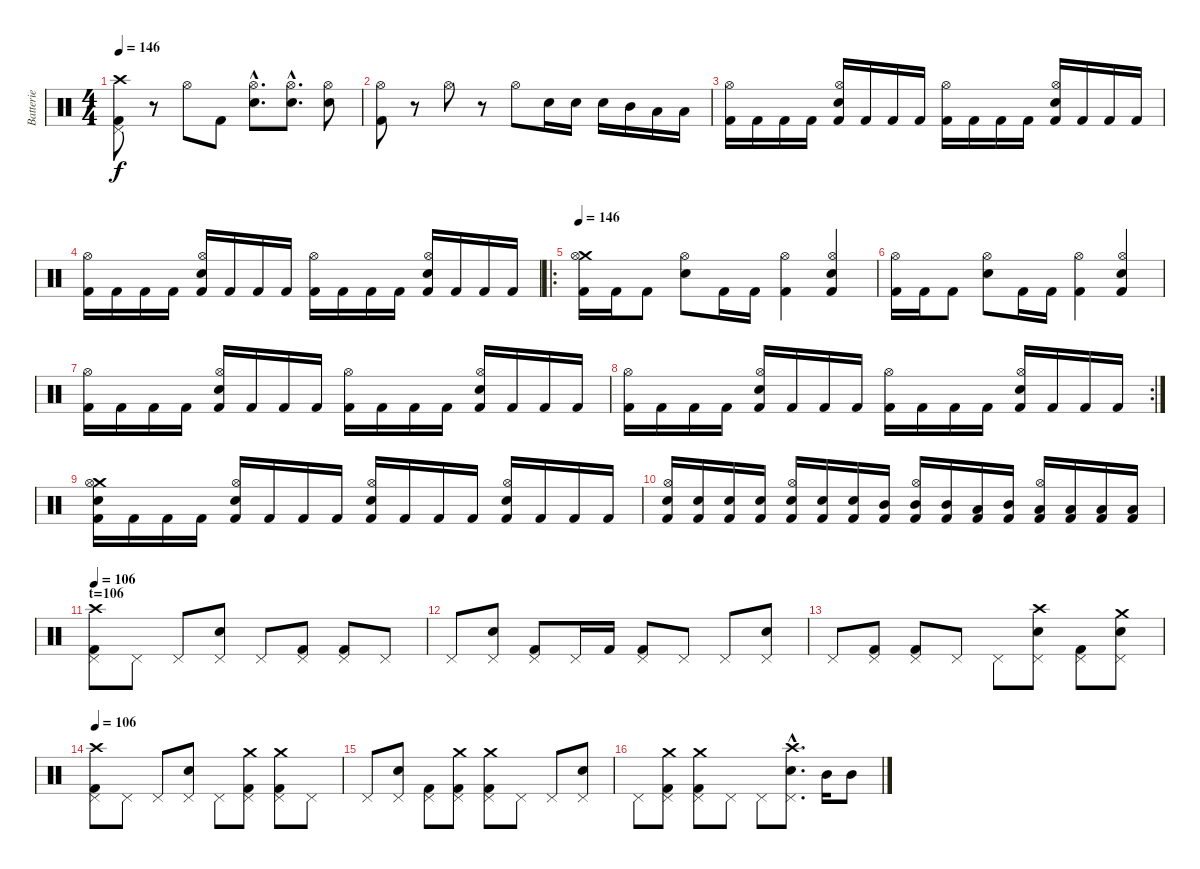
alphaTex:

\track ("Batterie" "Batterie") {instrument percussion}
\staff {score}
\articulation defaults
\ts (4 4)
\tempo 146
\clef neutral
\ks c
("Crash high (hit)" "Pedal Hi-Hat (hit)" "Kick (hit) 2").8{dy f} r.8 "Hi-Hat (open)".8 "Kick (hit) 2".8 ("Hi-Hat (open)"{hac} "Electric Snare (hit)"{hac}).8{d} ("Hi-Hat (open)"{hac} "Electric Snare (hit)"{hac}).8{d} ("Hi-Hat (open)" "Electric Snare (hit)").8 |
("Hi-Hat (open)" "Kick (hit) 2").8 r.8 "Hi-Hat (open)".8 r.8 "Hi-Hat (open)".8 "Electric Snare (hit)".16 "Electric Snare (hit)".16 "Electric Snare (hit)".16 "Mid Tom (hit)".16 "Low Tom (hit)".16 "Low Tom (hit)".16 |
("Hi-Hat (open)" "Kick (hit) 2").16 "Kick (hit) 2".16 "Kick (hit) 2".16 "Kick (hit) 2".16 ("Hi-Hat (open)" "Electric Snare (hit)" "Kick (hit) 2").16 "Kick (hit) 2".16 "Kick (hit) 2".16 "Kick (hit) 2".16 ("Hi-Hat (open)" "Kick (hit) 2").16 "Kick (hit) 2".16 "Kick (hit) 2".16 "Kick (hit) 2".16 ("Hi-Hat (open)" "Electric Snare (hit)" "Kick (hit) 2").16 "Kick (hit) 2".16 "Kick (hit) 2".16 "Kick (hit) 2".16 |
("Hi-Hat (open)" "Kick (hit) 2").16 "Kick (hit) 2".16 "Kick (hit) 2".16 "Kick (hit) 2".16 ("Hi-Hat (open)" "Electric Snare (hit)" "Kick (hit) 2").16 "Kick (hit) 2".16 "Kick (hit) 2".16 "Kick (hit) 2".16 ("Hi-Hat (open)" "Kick (hit) 2").16 "Kick (hit) 2".16 "Kick (hit) 2".16 "Kick (hit) 2".16 ("Hi-Hat (open)" "Electric Snare (hit)" "Kick (hit) 2").16 "Kick (hit) 2".16 "Kick (hit) 2".16 "Kick (hit) 2".16 |
\ro
\tempo 146
("Crash medium (hit)" "Hi-Hat (open)" "Kick (hit) 2").16 "Kick (hit) 2".16 "Kick (hit) 2".8 ("Hi-Hat (open)" "Electric Snare (hit)").8 "Kick (hit) 2".16 "Kick (hit) 2".16 ("Hi-Hat (open)" "Kick (hit) 2").4 ("Kick (hit) 2" "Hi-Hat (open)" "Electric Snare (hit)").4 |
("Hi-Hat (open)" "Kick (hit) 2").16 "Kick (hit) 2".16 "Kick (hit) 2".8 ("Hi-Hat (open)" "Electric Snare (hit)").8 "Kick (hit) 2".16 "Kick (hit) 2".16 ("Hi-Hat (open)" "Kick (hit) 2").4 ("Kick (hit) 2" "Hi-Hat (open)" "Electric Snare (hit)").4 |
("Hi-Hat (open)" "Kick (hit) 2").16 "Kick (hit) 2".16 "Kick (hit) 2".16 "Kick (hit) 2".16 ("Hi-Hat (open)" "Electric Snare (hit)" "Kick (hit) 2").16 "Kick (hit) 2".16 "Kick (hit) 2".16 "Kick (hit) 2".16 ("Hi-Hat (open)" "Kick (hit) 2").16 "Kick (hit) 2".16 "Kick (hit) 2".16 "Kick (hit) 2".16 ("Hi-Hat (open)" "Electric Snare (hit)" "Kick (hit) 2").16 "Kick (hit) 2".16 "Kick (hit) 2".16 "Kick (hit) 2".16 |
\rc 2
("Hi-Hat (open)" "Kick (hit) 2").16 "Kick (hit) 2".16 "Kick (hit) 2".16 "Kick (hit) 2".16 ("Hi-Hat (open)" "Electric Snare (hit)" "Kick (hit) 2").16 "Kick (hit) 2".16 "Kick (hit) 2".16 "Kick (hit) 2".16 ("Hi-Hat (open)" "Kick (hit) 2").16 "Kick (hit) 2".16 "Kick (hit) 2".16 "Kick (hit) 2".16 ("Hi-Hat (open)" "Electric Snare (hit)" "Kick (hit) 2").16 "Kick (hit) 2".16 "Kick (hit) 2".16 "Kick (hit) 2".16 |
("Crash medium (hit)" "Electric Snare (hit)" "Hi-Hat (open)" "Kick (hit) 2").16 "Kick (hit) 2".16 "Kick (hit) 2".16 "Kick (hit) 2".16 ("Hi-Hat (open)" "Electric Snare (hit)" "Kick (hit) 2").16 "Kick (hit) 2".16 "Kick (hit) 2".16 "Kick (hit) 2".16 ("Electric Snare (hit)" "Hi-Hat (open)" "Kick (hit) 2").16 "Kick (hit) 2".16 "Kick (hit) 2".16 "Kick (hit) 2".16 ("Hi-Hat (open)" "Electric Snare (hit)" "Kick (hit) 2").16 "Kick (hit) 2".16 "Kick (hit) 2".16 "Kick (hit) 2".16 |
("Electric Snare (hit)" "Hi-Hat (open)" "Kick (hit) 2").16 ("Electric Snare (hit)" "Kick (hit) 2").16 ("Electric Snare (hit)" "Kick (hit) 2").16 ("Electric Snare (hit)" "Kick (hit) 2").16 ("Hi-Hat (open)" "Electric Snare (hit)" "Kick (hit) 2").16 ("Electric Snare (hit)" "Kick (hit) 2").16 ("Electric Snare (hit)" "Kick (hit) 2").16 ("Mid Tom (hit)" "Kick (hit) 2").16 ("Mid Tom (hit)" "Hi-Hat (open)" "Kick (hit) 2").16 ("Mid Tom (hit)" "Kick (hit) 2").16 ("Low Tom (hit)" "Kick (hit) 2").16 ("Mid Tom (hit)" "Kick (hit) 2").16 ("Hi-Hat (open)" "Low Tom (hit)" "Kick (hit) 2").16 ("Low Tom (hit)" "Kick (hit) 2").16 ("Low Tom (hit)" "Kick (hit) 2").16 ("Low Tom (hit)" "Kick (hit) 2").16 |
\section ("" "t=106")
\tempo 106
("Crash high (hit)" "Pedal Hi-Hat (hit)" "Kick (hit) 2").8 "Pedal Hi-Hat (hit)".8 "Pedal Hi-Hat (hit)".8 ("Pedal Hi-Hat (hit)" "Electric Snare (hit)").8 "Pedal Hi-Hat (hit)".8 ("Pedal Hi-Hat (hit)" "Kick (hit) 2").8 ("Pedal Hi-Hat (hit)" "Kick (hit) 2").8 "Pedal Hi-Hat (hit)".8 |
"Pedal Hi-Hat (hit)".8 ("Pedal Hi-Hat (hit)" "Electric Snare (hit)").8 ("Pedal Hi-Hat (hit)" "Kick (hit) 2").8 "Pedal Hi-Hat (hit)".16 "Kick (hit) 2".16 ("Pedal Hi-Hat (hit)" "Kick (hit) 2").8 "Pedal Hi-Hat (hit)".8 "Pedal Hi-Hat (hit)".8 ("Pedal Hi-Hat (hit)" "Electric Snare (hit)").8 |
"Pedal Hi-Hat (hit)".8 ("Pedal Hi-Hat (hit)" "Kick (hit) 2").8 ("Pedal Hi-Hat (hit)" "Kick (hit) 2").8 "Pedal Hi-Hat (hit)".8 "Pedal Hi-Hat (hit)".8 ("Crash high (hit)" "Pedal Hi-Hat (hit)" "Electric Snare (hit)").8 ("Pedal Hi-Hat (hit)" "Kick (hit) 2").8 ("Crash medium (hit)" "Pedal Hi-Hat (hit)" "Electric Snare (hit)").8 |
\tempo 106
("Crash high (hit)" "Pedal Hi-Hat (hit)" "Kick (hit) 2").8 "Pedal Hi-Hat (hit)".8 "Pedal Hi-Hat (hit)".8 ("Pedal Hi-Hat (hit)" "Electric Snare (hit)").8 "Pedal Hi-Hat (hit)".8 ("Crash medium (hit)" "Pedal Hi-Hat (hit)" "Kick (hit) 2").8 ("Crash medium (hit)" "Pedal Hi-Hat (hit)" "Kick (hit) 2").8 "Pedal Hi-Hat (hit)".8 |
"Pedal Hi-Hat (hit)".8 ("Pedal Hi-Hat (hit)" "Electric Snare (hit)").8 ("Pedal Hi-Hat (hit)" "Kick (hit) 2").8 ("Crash medium (hit)" "Pedal Hi-Hat (hit)" "Kick (hit) 2").8 ("Crash medium (hit)" "Pedal Hi-Hat (hit)" "Kick (hit) 2").8 "Pedal Hi-Hat (hit)".8 "Pedal Hi-Hat (hit)".8 ("Pedal Hi-Hat (hit)" "Electric Snare (hit)").8 |
"Pedal Hi-Hat (hit)".8 ("Crash medium (hit)" "Pedal Hi-Hat (hit)" "Kick (hit) 2").8 ("Crash medium (hit)" "Pedal Hi-Hat (hit)" "Kick (hit) 2").8 "Pedal Hi-Hat (hit)".8 "Pedal Hi-Hat (hit)".8 ("Crash high (hit)"{hac} "Pedal Hi-Hat (hit)"{hac} "Electric Snare (hit)"{hac}).8{d} "Mid Tom (hit)".16 "Mid Tom (hit)".8
